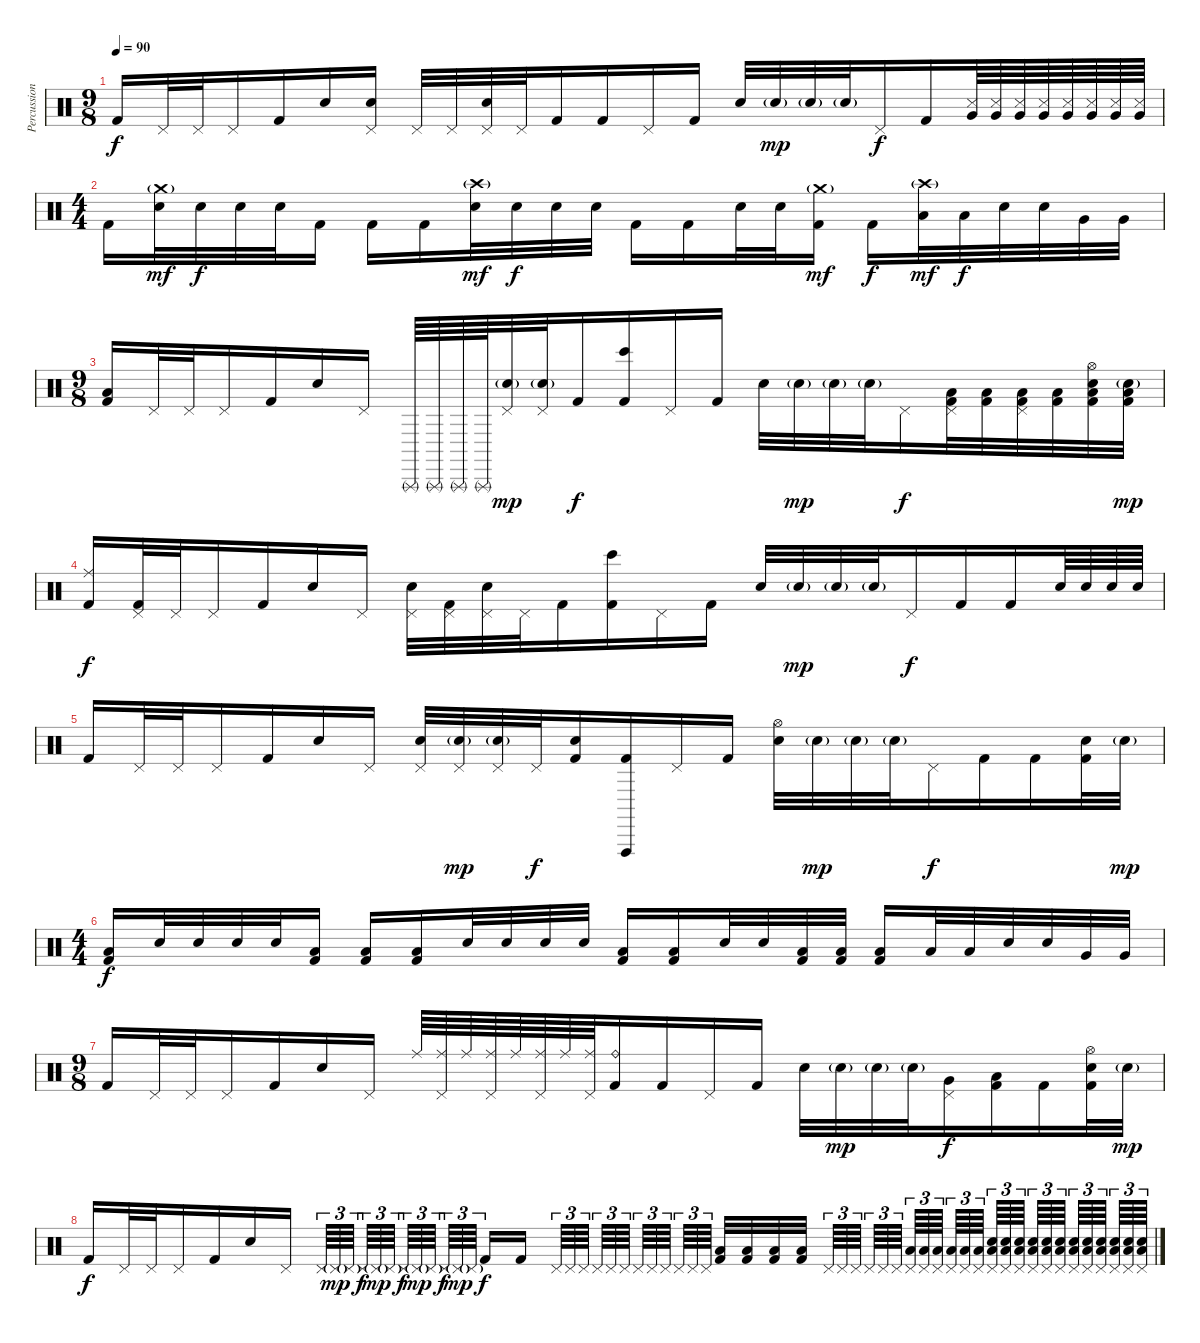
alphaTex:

\track ("Percussion" "Percussion") {instrument percussion}
\staff {score}
\articulation defaults
\ts (9 8)
\tempo 90
\clef neutral
\ks c "Kick (hit) 2".16{dy f} "Pedal Hi-Hat (hit)".32 "Pedal Hi-Hat (hit)".32 "Pedal Hi-Hat (hit)".16 "Kick (hit) 2".16 "Snare (hit) 2".16
("Snare (hit) 2" "Pedal Hi-Hat (hit)").16 "Pedal Hi-Hat (hit)".32 "Pedal Hi-Hat (hit)".32 ("Snare (hit) 2" "Pedal Hi-Hat (hit)").32 "Pedal Hi-Hat (hit)".32 "Kick (hit) 2".16 "Kick (hit) 2".16 "Pedal Hi-Hat (hit)".16 "Kick (hit) 2".16 "Snare (hit) 2".32 "Snare (hit) 2"{g}.32{dy mp} "Snare (hit) 2"{g}.32 "Snare (hit) 2"{g}.32 "Pedal Hi-Hat (hit)".16{dy f} "Kick (hit) 2".16 ("Very Low Tom (hit)" "Snare (side stick) 3").64 ("Very Low Tom (hit)" "Snare (side stick) 3").64 ("Very Low Tom (hit)" "Snare (side stick) 3").64 ("Very Low Tom (hit)" "Snare (side stick) 3").64 ("Very Low Tom (hit)" "Snare (side stick) 3").64 ("Very Low Tom (hit)" "Snare (side stick) 3").64 ("Very Low Tom (hit)" "Snare (side stick) 3").64 ("Very Low Tom (hit)" "Snare (side stick) 3").64 |
\ts (4 4)
"Kick (hit) 2".16 ("Crash medium (hit)"{g} "Snare (hit) 2").32{dy mf} "Snare (hit) 2".32{dy f} "Snare (hit) 2".32 "Snare (hit) 2".32 "Kick (hit) 2".16 "Kick (hit) 2".16 "Kick (hit) 2".16 ("Crash high (hit)"{g} "Snare (hit) 2").32{dy mf} "Snare (hit) 2".32{dy f} "Snare (hit) 2".32 "Snare (hit) 2".32 "Kick (hit) 2".16 "Kick (hit) 2".16 "Snare (hit) 2".32 "Snare (hit) 2".32 ("Crash medium (hit)"{g} "Kick (hit) 2").16{dy mf} "Kick (hit) 2".16{dy f} ("Crash high (hit)"{g} "Low Tom (hit)").32{dy mf} "Low Tom (hit)".32{dy f} "Snare (hit) 2".32 "Snare (hit) 2".32 "Very Low Tom (hit)".32 "Very Low Tom (hit)".32 |
\ts (9 8)
("Low Floor Tom (hit)" "Kick (hit) 2").16 "Pedal Hi-Hat (hit)".32 "Pedal Hi-Hat (hit)".32 "Pedal Hi-Hat (hit)".16 "Kick (hit) 2".16 "Snare (hit) 2".16 "Pedal Hi-Hat (hit)".16 "Triangle (rnute)".64 "Triangle (rnute)".64 "Triangle (rnute)".64 "Triangle (rnute)".64 ("Snare (hit) 2"{g} "Pedal Hi-Hat (hit)").32{dy mp} ("Snare (hit) 2"{g} "Pedal Hi-Hat (hit)").32 "Kick (hit) 2".16{dy f} ("Bongo High (hit)" "Kick (hit) 2").16 "Pedal Hi-Hat (hit)".16 "Kick (hit) 2".16 "Snare (hit) 2".32 "Snare (hit) 2"{g}.32{dy mp} "Snare (hit) 2"{g}.32 "Snare (hit) 2"{g}.32 "Pedal Hi-Hat (hit)".16{dy f} ("Low Floor Tom (hit)" "Pedal Hi-Hat (hit)" "Kick (hit) 2").32 ("Low Floor Tom (hit)" "Kick (hit) 2").32 ("Low Floor Tom (hit)" "Pedal Hi-Hat (hit)" "Kick (hit) 2").32 ("Low Floor Tom (hit)" "Kick (hit) 2").32 ("Low Floor Tom (hit)" "Hi-Hat (open)" "Snare (hit) 2" "Kick (hit) 2").32 ("Low Floor Tom (hit)" "Snare (hit) 2"{g} "Kick (hit) 2").32{dy mp} |
("Ride (middle)" "Kick (hit) 2").16{dy f} ("Pedal Hi-Hat (hit)" "Kick (hit) 2").32 "Pedal Hi-Hat (hit)".32 "Pedal Hi-Hat (hit)".16 "Kick (hit) 2".16 "Snare (hit) 2".16 "Pedal Hi-Hat (hit)".16 ("Snare (hit) 2" "Pedal Hi-Hat (hit)").32 ("Pedal Hi-Hat (hit)" "Kick (hit) 2").32 ("Snare (hit) 2" "Pedal Hi-Hat (hit)").32 "Pedal Hi-Hat (hit)".32 "Kick (hit) 2".16 ("Bongo High (hit)" "Kick (hit) 2").16 "Pedal Hi-Hat (hit)".16 "Kick (hit) 2".16 "Snare (hit) 2".32 "Snare (hit) 2"{g}.32{dy mp} "Snare (hit) 2"{g}.32 "Snare (hit) 2"{g}.32 "Pedal Hi-Hat (hit)".16{dy f} "Kick (hit) 2".16 "Kick (hit) 2".16 "Snare (hit) 2".64 "Snare (hit) 2".64 "Snare (hit) 2".64 "Snare (hit) 2".64 |
"Kick (hit) 2".16 "Pedal Hi-Hat (hit)".32 "Pedal Hi-Hat (hit)".32 "Pedal Hi-Hat (hit)".16 "Kick (hit) 2".16 "Snare (hit) 2".16 "Pedal Hi-Hat (hit)".16 ("Snare (hit) 2" "Pedal Hi-Hat (hit)").32 ("Snare (hit) 2"{g} "Pedal Hi-Hat (hit)").32{dy mp} ("Snare (hit) 2"{g} "Pedal Hi-Hat (hit)").32 "Pedal Hi-Hat (hit)".32{dy f} ("Snare (hit) 2" "Kick (hit) 2").16 ("Vibraslap (hit)" "Kick (hit) 2").16 "Pedal Hi-Hat (hit)".16 "Kick (hit) 2".16 ("Hi-Hat (open)" "Snare (hit) 2").32 "Snare (hit) 2"{g}.32{dy mp} "Snare (hit) 2"{g}.32 "Snare (hit) 2"{g}.32 "Pedal Hi-Hat (hit)".16{dy f} "Kick (hit) 2".16 "Kick (hit) 2".16 ("Snare (hit) 2" "Kick (hit) 2").32 "Snare (hit) 2"{g}.32{dy mp} |
\ts (4 4)
("Low Floor Tom (hit)" "Kick (hit) 2").16{dy f} "Snare (hit) 2".32 "Snare (hit) 2".32 "Snare (hit) 2".32 "Snare (hit) 2".32 ("Low Floor Tom (hit)" "Kick (hit) 2").16 ("Low Floor Tom (hit)" "Kick (hit) 2").16 ("Low Floor Tom (hit)" "Kick (hit) 2").16 "Snare (hit) 2".32 "Snare (hit) 2".32 "Snare (hit) 2".32 "Snare (hit) 2".32 ("Low Floor Tom (hit)" "Kick (hit) 2").16 ("Low Floor Tom (hit)" "Kick (hit) 2").16 "Snare (hit) 2".32 "Snare (hit) 2".32 ("Low Floor Tom (hit)" "Kick (hit) 2").32 ("Low Floor Tom (hit)" "Kick (hit) 2").32 ("Low Floor Tom (hit)" "Kick (hit) 2").16 "Low Tom (hit)".32 "Low Tom (hit)".32 "Snare (hit) 2".32 "Snare (hit) 2".32 "Very Low Tom (hit)".32 "Very Low Tom (hit)".32 |
\ts (9 8)
"Kick (hit) 2".16{volume 13} "Pedal Hi-Hat (hit)".32 "Pedal Hi-Hat (hit)".32 "Pedal Hi-Hat (hit)".16 "Kick (hit) 2".16 "Snare (hit) 2".16 "Pedal Hi-Hat (hit)".16 "Ride (middle)".64 ("Ride (middle)" "Pedal Hi-Hat (hit)").64 "Ride (middle)".64 ("Ride (middle)" "Pedal Hi-Hat (hit)").64 "Ride (middle)".64 ("Ride (middle)" "Pedal Hi-Hat (hit)").64 "Ride (middle)".64 ("Ride (middle)" "Pedal Hi-Hat (hit)").64 ("Ride (bell)" "Kick (hit) 2").16 "Kick (hit) 2".16 "Pedal Hi-Hat (hit)".16 "Kick (hit) 2".16 "Snare (hit) 2".32 "Snare (hit) 2"{g}.32{dy mp} "Snare (hit) 2"{g}.32 "Snare (hit) 2"{g}.32 ("Very Low Tom (hit)" "Pedal Hi-Hat (hit)").16{dy f} ("Low Floor Tom (hit)" "Kick (hit) 2").16 "Kick (hit) 2".16 ("Hi-Hat (open)" "Snare (hit) 2" "Kick (hit) 2").32 "Snare (hit) 2"{g}.32{dy mp} |
"Kick (hit) 2".16{dy f} "Pedal Hi-Hat (hit)".32 "Pedal Hi-Hat (hit)".32 "Pedal Hi-Hat (hit)".16 "Kick (hit) 2".16 "Snare (hit) 2".16 "Pedal Hi-Hat (hit)".16 "Pedal Hi-Hat (hit)".64{tu (3 2)} "Pedal Hi-Hat (hit)"{g}.64{tu (3 2) dy mp} "Pedal Hi-Hat (hit)"{g}.64{tu (3 2)} "Pedal Hi-Hat (hit)".64{tu (3 2) dy f} "Pedal Hi-Hat (hit)"{g}.64{tu (3 2) dy mp} "Pedal Hi-Hat (hit)"{g}.64{tu (3 2)} "Pedal Hi-Hat (hit)".64{tu (3 2) dy f} "Pedal Hi-Hat (hit)"{g}.64{tu (3 2) dy mp} "Pedal Hi-Hat (hit)"{g}.64{tu (3 2)} "Pedal Hi-Hat (hit)".64{tu (3 2) dy f} "Pedal Hi-Hat (hit)"{g}.64{tu (3 2) dy mp} "Pedal Hi-Hat (hit)"{g}.64{tu (3 2)} "Kick (hit) 2".16{dy f} "Kick (hit) 2".16 "Pedal Hi-Hat (hit)".64{tu (3 2)} "Pedal Hi-Hat (hit)".64{tu (3 2)} "Pedal Hi-Hat (hit)".64{tu (3 2)} "Pedal Hi-Hat (hit)".64{tu (3 2)} "Pedal Hi-Hat (hit)".64{tu (3 2)} "Pedal Hi-Hat (hit)".64{tu (3 2)} "Pedal Hi-Hat (hit)".64{tu (3 2)} "Pedal Hi-Hat (hit)".64{tu (3 2)} "Pedal Hi-Hat (hit)".64{tu (3 2)} "Pedal Hi-Hat (hit)".64{tu (3 2)} "Pedal Hi-Hat (hit)".64{tu (3 2)} "Pedal Hi-Hat (hit)".64{tu (3 2)} ("Low Floor Tom (hit)" "Kick (hit) 2").32 ("Low Floor Tom (hit)" "Kick (hit) 2").32 ("Low Floor Tom (hit)" "Kick (hit) 2").32 ("Low Floor Tom (hit)" "Kick (hit) 2").32 "Pedal Hi-Hat (hit)".64{tu (3 2)} "Pedal Hi-Hat (hit)".64{tu (3 2)} "Pedal Hi-Hat (hit)".64{tu (3 2)} "Pedal Hi-Hat (hit)".64{tu (3 2)} "Pedal Hi-Hat (hit)".64{tu (3 2)} "Pedal Hi-Hat (hit)".64{tu (3 2)} ("Pedal Hi-Hat (hit)" "Low Floor Tom (hit)").64{tu (3 2)} ("Pedal Hi-Hat (hit)" "Low Floor Tom (hit)").64{tu (3 2)} ("Pedal Hi-Hat (hit)" "Low Floor Tom (hit)").64{tu (3 2)} ("Pedal Hi-Hat (hit)" "Low Floor Tom (hit)").64{tu (3 2)} ("Pedal Hi-Hat (hit)" "Low Floor Tom (hit)").64{tu (3 2)} ("Pedal Hi-Hat (hit)" "Low Floor Tom (hit)").64{tu (3 2)} ("Snare (hit) 2" "Pedal Hi-Hat (hit)" "Low Floor Tom (hit)").64{tu (3 2)} ("Snare (hit) 2" "Pedal Hi-Hat (hit)" "Low Floor Tom (hit)").64{tu (3 2)} ("Snare (hit) 2" "Pedal Hi-Hat (hit)" "Low Floor Tom (hit)").64{tu (3 2)} ("Snare (hit) 2" "Pedal Hi-Hat (hit)" "Low Floor Tom (hit)").64{tu (3 2)} ("Snare (hit) 2" "Pedal Hi-Hat (hit)" "Low Floor Tom (hit)").64{tu (3 2)} ("Snare (hit) 2" "Pedal Hi-Hat (hit)" "Low Floor Tom (hit)").64{tu (3 2)} ("Snare (hit) 2" "Pedal Hi-Hat (hit)" "Low Floor Tom (hit)").64{tu (3 2)} ("Snare (hit) 2" "Pedal Hi-Hat (hit)" "Low Floor Tom (hit)").64{tu (3 2)} ("Snare (hit) 2" "Pedal Hi-Hat (hit)" "Low Floor Tom (hit)").64{tu (3 2)} ("Snare (hit) 2" "Pedal Hi-Hat (hit)" "Low Floor Tom (hit)").64{tu (3 2)} ("Snare (hit) 2" "Pedal Hi-Hat (hit)" "Low Floor Tom (hit)").64{tu (3 2)} ("Snare (hit) 2" "Pedal Hi-Hat (hit)" "Low Floor Tom (hit)").64{tu (3 2)}
